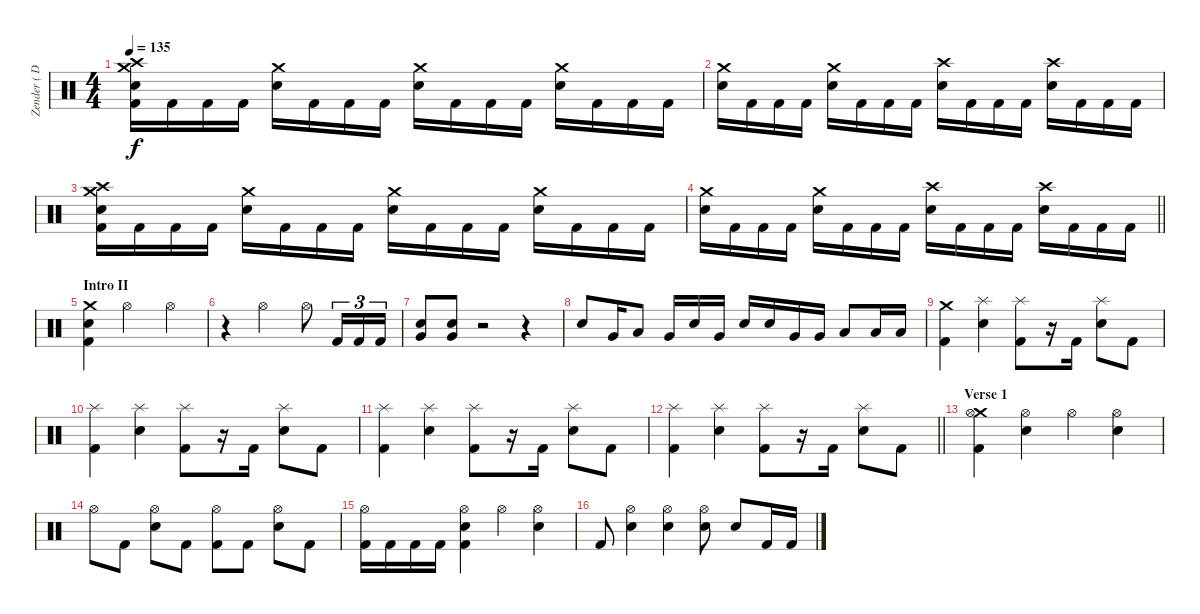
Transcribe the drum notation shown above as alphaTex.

\track ("Zender ( Drums )" "Zender ( D") {instrument percussion}
\staff {score}
\articulation defaults
\ts (4 4)
\tempo 135
\clef neutral
\ks c
("Crash medium (hit)" "Crash high (hit)" "Electric Snare (hit)" "Kick (hit) 2").16{dy f} "Kick (hit) 2".16 "Kick (hit) 2".16 "Kick (hit) 2".16 ("Crash medium (hit)" "Electric Snare (hit)").16 "Kick (hit) 2".16 "Kick (hit) 2".16 "Kick (hit) 2".16 ("Crash medium (hit)" "Electric Snare (hit)").16 "Kick (hit) 2".16 "Kick (hit) 2".16 "Kick (hit) 2".16 ("Crash medium (hit)" "Electric Snare (hit)").16 "Kick (hit) 2".16 "Kick (hit) 2".16 "Kick (hit) 2".16 |
("Crash medium (hit)" "Electric Snare (hit)").16 "Kick (hit) 2".16 "Kick (hit) 2".16 "Kick (hit) 2".16 ("Crash medium (hit)" "Electric Snare (hit)").16 "Kick (hit) 2".16 "Kick (hit) 2".16 "Kick (hit) 2".16 ("Crash high (hit)" "Electric Snare (hit)").16 "Kick (hit) 2".16 "Kick (hit) 2".16 "Kick (hit) 2".16 ("Crash high (hit)" "Electric Snare (hit)").16 "Kick (hit) 2".16 "Kick (hit) 2".16 "Kick (hit) 2".16 |
("Crash medium (hit)" "Crash high (hit)" "Electric Snare (hit)" "Kick (hit) 2").16 "Kick (hit) 2".16 "Kick (hit) 2".16 "Kick (hit) 2".16 ("Crash medium (hit)" "Electric Snare (hit)").16 "Kick (hit) 2".16 "Kick (hit) 2".16 "Kick (hit) 2".16 ("Crash medium (hit)" "Electric Snare (hit)").16 "Kick (hit) 2".16 "Kick (hit) 2".16 "Kick (hit) 2".16 ("Crash medium (hit)" "Electric Snare (hit)").16 "Kick (hit) 2".16 "Kick (hit) 2".16 "Kick (hit) 2".16 |
\barLineRight lightlight
("Crash medium (hit)" "Electric Snare (hit)").16 "Kick (hit) 2".16 "Kick (hit) 2".16 "Kick (hit) 2".16 ("Crash medium (hit)" "Electric Snare (hit)").16 "Kick (hit) 2".16 "Kick (hit) 2".16 "Kick (hit) 2".16 ("Crash high (hit)" "Electric Snare (hit)").16 "Kick (hit) 2".16 "Kick (hit) 2".16 "Kick (hit) 2".16 ("Crash high (hit)" "Electric Snare (hit)").16 "Kick (hit) 2".16 "Kick (hit) 2".16 "Kick (hit) 2".16 |
\section ("" "Intro II")
("Crash medium (hit)" "Electric Snare (hit)" "Kick (hit) 2").4 "Hi-Hat (open)".2 "Hi-Hat (open)".4 |
r.4 "Hi-Hat (open)".2 "Hi-Hat (open)".8 "Kick (hit) 2".16{tu (3 2)} "Kick (hit) 2".16{tu (3 2)} "Kick (hit) 2".16{tu (3 2)} |
("Very Low Tom (hit)" "Electric Snare (hit)").8 ("Very Low Tom (hit)" "Electric Snare (hit)").8 r.2 r.4 |
"Electric Snare (hit)".8 "Very Low Tom (hit)".16 "Low Tom (hit)".8 "Very Low Tom (hit)".16 "Electric Snare (hit)".16 "Very Low Tom (hit)".16 "Electric Snare (hit)".16 "Electric Snare (hit)".16 "Very Low Tom (hit)".16 "Very Low Tom (hit)".16 "Low Floor Tom (hit)".8 "Low Floor Tom (hit)".16 "Low Floor Tom (hit)".16 |
("Crash medium (hit)" "Kick (hit) 2").4 ("Splash (hit)" "Electric Snare (hit)").4 ("Splash (hit)" "Kick (hit) 2").8 r.16 "Kick (hit) 2".16 ("Splash (hit)" "Electric Snare (hit)").8 "Kick (hit) 2".8 |
("Splash (hit)" "Kick (hit) 2").4 ("Splash (hit)" "Electric Snare (hit)").4 ("Splash (hit)" "Kick (hit) 2").8 r.16 "Kick (hit) 2".16 ("Splash (hit)" "Electric Snare (hit)").8 "Kick (hit) 2".8 |
("Splash (hit)" "Kick (hit) 2").4 ("Splash (hit)" "Electric Snare (hit)").4 ("Splash (hit)" "Kick (hit) 2").8 r.16 "Kick (hit) 2".16 ("Splash (hit)" "Electric Snare (hit)").8 "Kick (hit) 2".8 |
\barLineRight lightlight
("Splash (hit)" "Kick (hit) 2").4 ("Splash (hit)" "Electric Snare (hit)").4 ("Splash (hit)" "Kick (hit) 2").8 r.16 "Kick (hit) 2".16 ("Splash (hit)" "Electric Snare (hit)").8 "Kick (hit) 2".8 |
\section ("" "Verse 1")
("Crash medium (hit)" "Hi-Hat (open)" "Kick (hit) 2").4 ("Hi-Hat (open)" "Electric Snare (hit)").4 "Hi-Hat (open)".4 ("Hi-Hat (open)" "Electric Snare (hit)").4 |
"Hi-Hat (open)".8 "Kick (hit) 2".8 ("Hi-Hat (open)" "Electric Snare (hit)").8 "Kick (hit) 2".8 ("Hi-Hat (open)" "Kick (hit) 2").8 "Kick (hit) 2".8 ("Hi-Hat (open)" "Electric Snare (hit)").8 "Kick (hit) 2".8 |
("Hi-Hat (open)" "Kick (hit) 2").16 "Kick (hit) 2".16 "Kick (hit) 2".16 "Kick (hit) 2".16 ("Hi-Hat (open)" "Electric Snare (hit)" "Kick (hit) 2").4 "Hi-Hat (open)".4 ("Hi-Hat (open)" "Electric Snare (hit)").4 |
"Kick (hit) 2".8 ("Hi-Hat (open)" "Electric Snare (hit)").4 ("Hi-Hat (open)" "Electric Snare (hit)").4 ("Hi-Hat (open)" "Electric Snare (hit)").8 "Electric Snare (hit)".8 "Kick (hit) 2".16 "Kick (hit) 2".16
